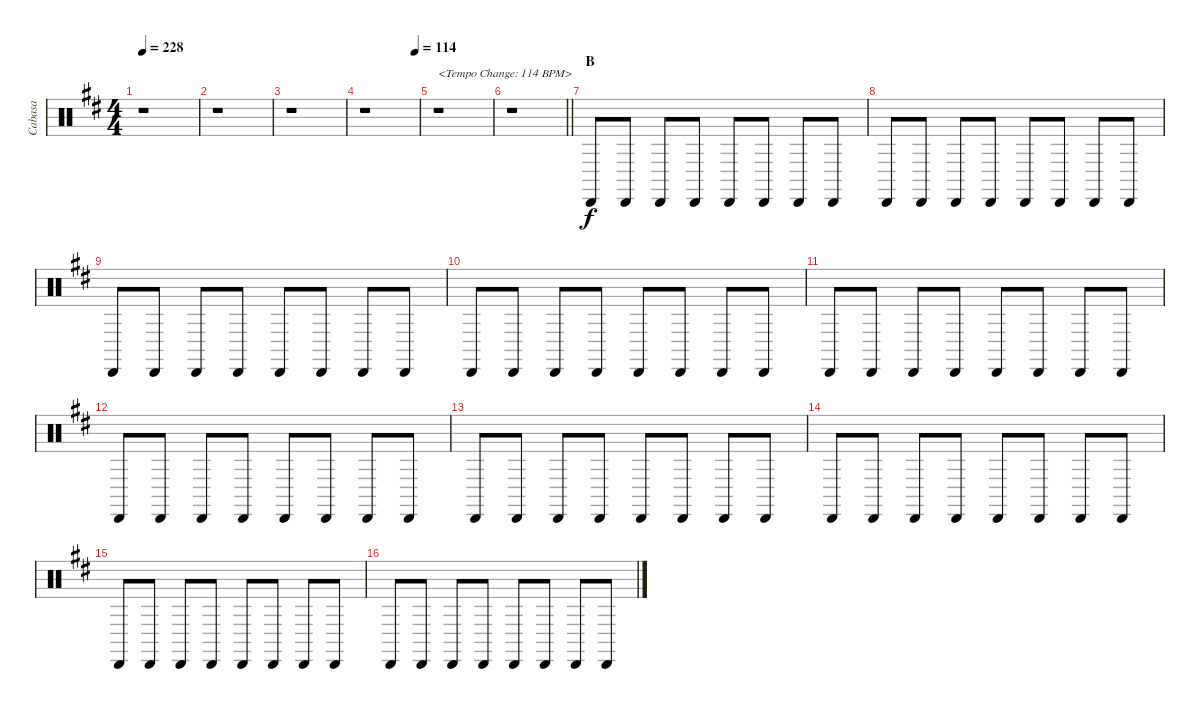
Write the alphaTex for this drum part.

\track ("Cabasa" "Cabasa") {instrument percussion}
\staff {score}
\articulation defaults
\ts (4 4)
\tempo 228
\clef neutral
\ks d
r.1{dy f} |
r.1 |
r.1 |
\tempo (114 0.9375)
r.1 |
r.1{txt "<Tempo Change: 114 BPM>"} |
\barLineRight lightlight
r.1 |
\section ("" "B")
"Cabasa (hit)".8 "Cabasa (hit)".8 "Cabasa (hit)".8 "Cabasa (hit)".8 "Cabasa (hit)".8 "Cabasa (hit)".8 "Cabasa (hit)".8 "Cabasa (hit)".8 |
"Cabasa (hit)".8 "Cabasa (hit)".8 "Cabasa (hit)".8 "Cabasa (hit)".8 "Cabasa (hit)".8 "Cabasa (hit)".8 "Cabasa (hit)".8 "Cabasa (hit)".8 |
"Cabasa (hit)".8 "Cabasa (hit)".8 "Cabasa (hit)".8 "Cabasa (hit)".8 "Cabasa (hit)".8 "Cabasa (hit)".8 "Cabasa (hit)".8 "Cabasa (hit)".8 |
"Cabasa (hit)".8 "Cabasa (hit)".8 "Cabasa (hit)".8 "Cabasa (hit)".8 "Cabasa (hit)".8 "Cabasa (hit)".8 "Cabasa (hit)".8 "Cabasa (hit)".8 |
"Cabasa (hit)".8 "Cabasa (hit)".8 "Cabasa (hit)".8 "Cabasa (hit)".8 "Cabasa (hit)".8 "Cabasa (hit)".8 "Cabasa (hit)".8 "Cabasa (hit)".8 |
"Cabasa (hit)".8 "Cabasa (hit)".8 "Cabasa (hit)".8 "Cabasa (hit)".8 "Cabasa (hit)".8 "Cabasa (hit)".8 "Cabasa (hit)".8 "Cabasa (hit)".8 |
"Cabasa (hit)".8 "Cabasa (hit)".8 "Cabasa (hit)".8 "Cabasa (hit)".8 "Cabasa (hit)".8 "Cabasa (hit)".8 "Cabasa (hit)".8 "Cabasa (hit)".8 |
"Cabasa (hit)".8 "Cabasa (hit)".8 "Cabasa (hit)".8 "Cabasa (hit)".8 "Cabasa (hit)".8 "Cabasa (hit)".8 "Cabasa (hit)".8 "Cabasa (hit)".8 |
"Cabasa (hit)".8 "Cabasa (hit)".8 "Cabasa (hit)".8 "Cabasa (hit)".8 "Cabasa (hit)".8 "Cabasa (hit)".8 "Cabasa (hit)".8 "Cabasa (hit)".8 |
"Cabasa (hit)".8 "Cabasa (hit)".8 "Cabasa (hit)".8 "Cabasa (hit)".8 "Cabasa (hit)".8 "Cabasa (hit)".8 "Cabasa (hit)".8 "Cabasa (hit)".8
